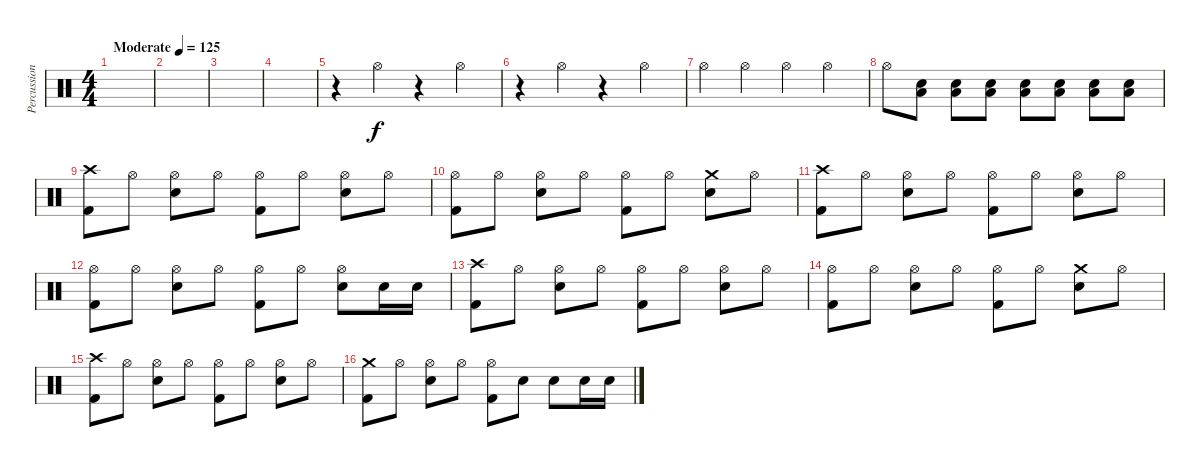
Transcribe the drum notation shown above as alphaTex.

\track ("Percussion" "Percussion") {instrument percussion}
\staff {score}
\articulation defaults
\ts (4 4)
\tempo (125 "Moderate")
\clef neutral
\ks c
|
|
|
|
r.4 "Hi-Hat (open)".4 r.4 "Hi-Hat (open)".4 |
r.4 "Hi-Hat (open)".4 r.4 "Hi-Hat (open)".4 |
"Hi-Hat (open)".4 "Hi-Hat (open)".4 "Hi-Hat (open)".4 "Hi-Hat (open)".4 |
"Hi-Hat (open)".8 ("Snare (hit) 2" "Low Floor Tom (hit)").8 ("Snare (hit) 2" "Low Floor Tom (hit)").8 ("Snare (hit) 2" "Low Floor Tom (hit)").8 ("Snare (hit) 2" "Low Floor Tom (hit)").8 ("Snare (hit) 2" "Low Floor Tom (hit)").8 ("Snare (hit) 2" "Low Floor Tom (hit)").8 ("Snare (hit) 2" "Low Floor Tom (hit)").8 |
("Crash high (hit)" "Kick (hit) 2").8 "Hi-Hat (open)".8 ("Hi-Hat (open)" "Snare (hit) 2").8 "Hi-Hat (open)".8 ("Hi-Hat (open)" "Kick (hit) 2").8 "Hi-Hat (open)".8 ("Hi-Hat (open)" "Snare (hit) 2").8 "Hi-Hat (open)".8 |
("Hi-Hat (open)" "Kick (hit) 2").8 "Hi-Hat (open)".8 ("Hi-Hat (open)" "Snare (hit) 2").8 "Hi-Hat (open)".8 ("Hi-Hat (open)" "Kick (hit) 2").8 "Hi-Hat (open)".8 ("Crash medium (hit)" "Snare (hit) 2").8 "Hi-Hat (open)".8 |
("Crash high (hit)" "Kick (hit) 2").8 "Hi-Hat (open)".8 ("Hi-Hat (open)" "Snare (hit) 2").8 "Hi-Hat (open)".8 ("Hi-Hat (open)" "Kick (hit) 2").8 "Hi-Hat (open)".8 ("Hi-Hat (open)" "Snare (hit) 2").8 "Hi-Hat (open)".8 |
("Hi-Hat (open)" "Kick (hit) 2").8 "Hi-Hat (open)".8 ("Hi-Hat (open)" "Snare (hit) 2").8 "Hi-Hat (open)".8 ("Hi-Hat (open)" "Kick (hit) 2").8 "Hi-Hat (open)".8 ("Hi-Hat (open)" "Snare (hit) 2").8 "Snare (hit) 2".16 "Snare (hit) 2".16 |
("Crash high (hit)" "Kick (hit) 2").8 "Hi-Hat (open)".8 ("Hi-Hat (open)" "Snare (hit) 2").8 "Hi-Hat (open)".8 ("Hi-Hat (open)" "Kick (hit) 2").8 "Hi-Hat (open)".8 ("Hi-Hat (open)" "Snare (hit) 2").8 "Hi-Hat (open)".8 |
("Hi-Hat (open)" "Kick (hit) 2").8 "Hi-Hat (open)".8 ("Hi-Hat (open)" "Snare (hit) 2").8 "Hi-Hat (open)".8 ("Hi-Hat (open)" "Kick (hit) 2").8 "Hi-Hat (open)".8 ("Crash medium (hit)" "Snare (hit) 2").8 "Hi-Hat (open)".8 |
("Crash high (hit)" "Kick (hit) 2").8 "Hi-Hat (open)".8 ("Hi-Hat (open)" "Snare (hit) 2").8 "Hi-Hat (open)".8 ("Hi-Hat (open)" "Kick (hit) 2").8 "Hi-Hat (open)".8 ("Hi-Hat (open)" "Snare (hit) 2").8 "Hi-Hat (open)".8 |
("Crash medium (hit)" "Kick (hit) 2").8 "Hi-Hat (open)".8 ("Hi-Hat (open)" "Snare (hit) 2").8 "Hi-Hat (open)".8 ("Hi-Hat (open)" "Kick (hit) 2").8 "Snare (hit) 2".8 "Snare (hit) 2".8 "Snare (hit) 2".16 "Snare (hit) 2".16
